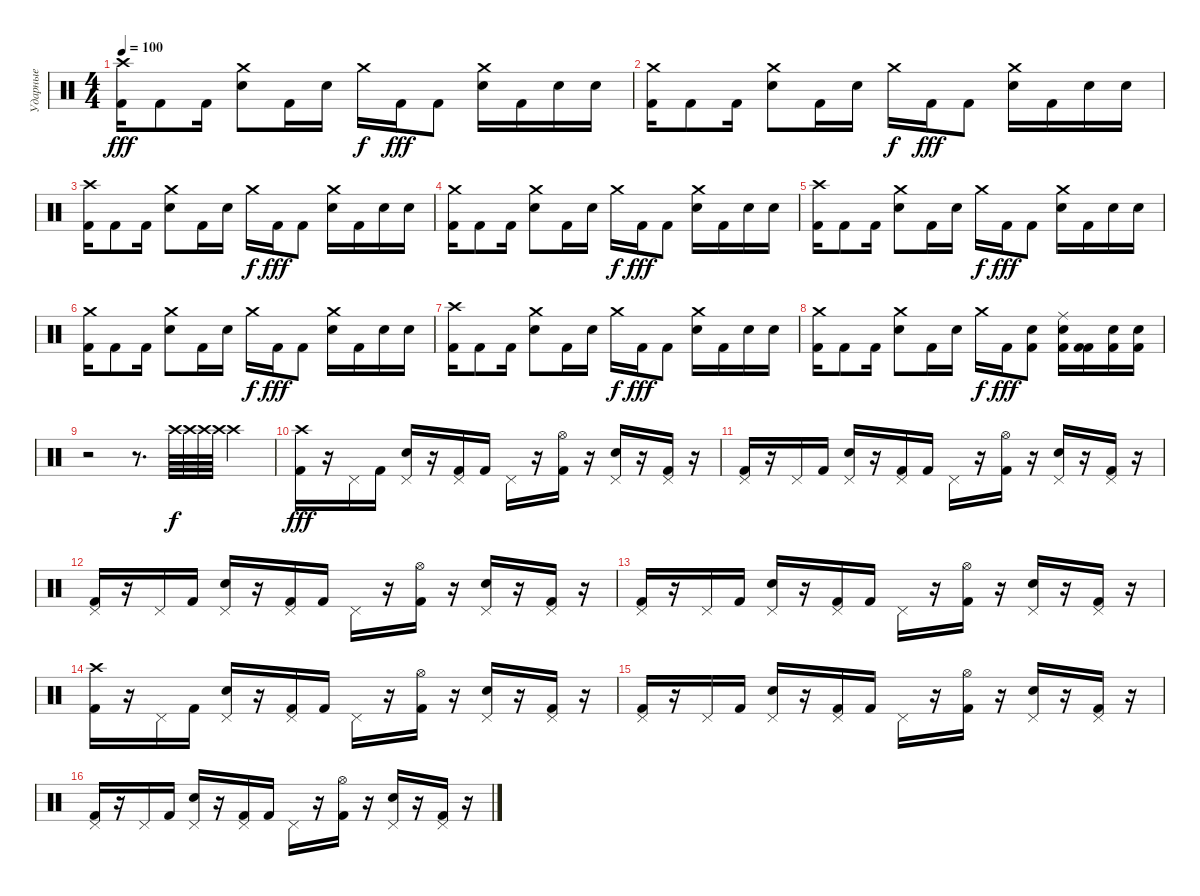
\track ("Ударные" "Ударные") {instrument percussion}
\staff {score}
\articulation defaults
\ts (4 4)
\tempo 100
\clef neutral
\ks c
("Kick (hit) 2" "Crash high (hit)").16{dy fff} "Kick (hit) 2".8 "Kick (hit) 2".16 ("Snare (hit) 2" "Crash medium (hit)").8 "Kick (hit) 2".16 "Snare (hit) 2".16 "Crash medium (hit)".16{dy f} "Kick (hit) 2".16{dy fff} "Kick (hit) 2".8 ("Snare (hit) 2" "Crash medium (hit)").16 "Kick (hit) 2".16 "Snare (hit) 2".16 "Snare (hit) 2".16 |
("Kick (hit) 2" "Crash medium (hit)").16 "Kick (hit) 2".8 "Kick (hit) 2".16 ("Snare (hit) 2" "Crash medium (hit)").8 "Kick (hit) 2".16 "Snare (hit) 2".16 "Crash medium (hit)".16{dy f} "Kick (hit) 2".16{dy fff} "Kick (hit) 2".8 ("Snare (hit) 2" "Crash medium (hit)").16 "Kick (hit) 2".16 "Snare (hit) 2".16 "Snare (hit) 2".16 |
("Kick (hit) 2" "Crash high (hit)").16 "Kick (hit) 2".8 "Kick (hit) 2".16 ("Snare (hit) 2" "Crash medium (hit)").8 "Kick (hit) 2".16 "Snare (hit) 2".16 "Crash medium (hit)".16{dy f} "Kick (hit) 2".16{dy fff} "Kick (hit) 2".8 ("Snare (hit) 2" "Crash medium (hit)").16 "Kick (hit) 2".16 "Snare (hit) 2".16 "Snare (hit) 2".16 |
("Kick (hit) 2" "Crash medium (hit)").16 "Kick (hit) 2".8 "Kick (hit) 2".16 ("Snare (hit) 2" "Crash medium (hit)").8 "Kick (hit) 2".16 "Snare (hit) 2".16 "Crash medium (hit)".16{dy f} "Kick (hit) 2".16{dy fff} "Kick (hit) 2".8 ("Snare (hit) 2" "Crash medium (hit)").16 "Kick (hit) 2".16 "Snare (hit) 2".16 "Snare (hit) 2".16 |
("Kick (hit) 2" "Crash high (hit)").16 "Kick (hit) 2".8 "Kick (hit) 2".16 ("Snare (hit) 2" "Crash medium (hit)").8 "Kick (hit) 2".16 "Snare (hit) 2".16 "Crash medium (hit)".16{dy f} "Kick (hit) 2".16{dy fff} "Kick (hit) 2".8 ("Snare (hit) 2" "Crash medium (hit)").16 "Kick (hit) 2".16 "Snare (hit) 2".16 "Snare (hit) 2".16 |
("Kick (hit) 2" "Crash medium (hit)").16 "Kick (hit) 2".8 "Kick (hit) 2".16 ("Snare (hit) 2" "Crash medium (hit)").8 "Kick (hit) 2".16 "Snare (hit) 2".16 "Crash medium (hit)".16{dy f} "Kick (hit) 2".16{dy fff} "Kick (hit) 2".8 ("Snare (hit) 2" "Crash medium (hit)").16 "Kick (hit) 2".16 "Snare (hit) 2".16 "Snare (hit) 2".16 |
("Kick (hit) 2" "Crash high (hit)").16 "Kick (hit) 2".8 "Kick (hit) 2".16 ("Snare (hit) 2" "Crash medium (hit)").8 "Kick (hit) 2".16 "Snare (hit) 2".16 "Crash medium (hit)".16{dy f} "Kick (hit) 2".16{dy fff} "Kick (hit) 2".8 ("Snare (hit) 2" "Crash medium (hit)").16 "Kick (hit) 2".16 "Snare (hit) 2".16 "Snare (hit) 2".16 |
("Kick (hit) 2" "Crash medium (hit)").16 "Kick (hit) 2".8 "Kick (hit) 2".16 ("Snare (hit) 2" "Crash medium (hit)").8 "Kick (hit) 2".16 "Snare (hit) 2".16 "Crash medium (hit)".16{dy f} "Kick (hit) 2".16{dy fff} ("Kick (hit) 2" "Snare (hit) 2").8 ("Snare (hit) 2" "Kick (hit) 2" "Ride (middle)").16 ("Kick (hit) 2" "Kick (hit) 2").16 ("Snare (hit) 2" "Kick (hit) 2").16 ("Snare (hit) 2" "Kick (hit) 2").16 |
r.2 r.8{d} "Crash high (hit)".64{dy f} "Crash high (hit)".64 "Crash high (hit)".64 "Crash high (hit)".64 "Crash high (hit)".4 |
("Crash high (hit)" "Kick (hit) 2").16{dy fff} r.16 "Pedal Hi-Hat (hit)".16 "Kick (hit) 2".16 ("Pedal Hi-Hat (hit)" "Snare (hit) 2").16 r.16 ("Pedal Hi-Hat (hit)" "Kick (hit) 2").16 "Kick (hit) 2".16 "Pedal Hi-Hat (hit)".16 r.16 ("Hi-Hat (open)" "Kick (hit) 2").16 r.16 ("Pedal Hi-Hat (hit)" "Snare (hit) 2").16 r.16 ("Pedal Hi-Hat (hit)" "Kick (hit) 2").16 r.16 |
("Pedal Hi-Hat (hit)" "Kick (hit) 2").16 r.16 "Pedal Hi-Hat (hit)".16 "Kick (hit) 2".16 ("Pedal Hi-Hat (hit)" "Snare (hit) 2").16 r.16 ("Pedal Hi-Hat (hit)" "Kick (hit) 2").16 "Kick (hit) 2".16 "Pedal Hi-Hat (hit)".16 r.16 ("Hi-Hat (open)" "Kick (hit) 2").16 r.16 ("Pedal Hi-Hat (hit)" "Snare (hit) 2").16 r.16 ("Pedal Hi-Hat (hit)" "Kick (hit) 2").16 r.16 |
("Pedal Hi-Hat (hit)" "Kick (hit) 2").16 r.16 "Pedal Hi-Hat (hit)".16 "Kick (hit) 2".16 ("Pedal Hi-Hat (hit)" "Snare (hit) 2").16 r.16 ("Pedal Hi-Hat (hit)" "Kick (hit) 2").16 "Kick (hit) 2".16 "Pedal Hi-Hat (hit)".16 r.16 ("Hi-Hat (open)" "Kick (hit) 2").16 r.16 ("Pedal Hi-Hat (hit)" "Snare (hit) 2").16 r.16 ("Pedal Hi-Hat (hit)" "Kick (hit) 2").16 r.16 |
("Pedal Hi-Hat (hit)" "Kick (hit) 2").16 r.16 "Pedal Hi-Hat (hit)".16 "Kick (hit) 2".16 ("Pedal Hi-Hat (hit)" "Snare (hit) 2").16 r.16 ("Pedal Hi-Hat (hit)" "Kick (hit) 2").16 "Kick (hit) 2".16 "Pedal Hi-Hat (hit)".16 r.16 ("Hi-Hat (open)" "Kick (hit) 2").16 r.16 ("Pedal Hi-Hat (hit)" "Snare (hit) 2").16 r.16 ("Pedal Hi-Hat (hit)" "Kick (hit) 2").16 r.16 |
("Crash high (hit)" "Kick (hit) 2").16 r.16 "Pedal Hi-Hat (hit)".16 "Kick (hit) 2".16 ("Pedal Hi-Hat (hit)" "Snare (hit) 2").16 r.16 ("Pedal Hi-Hat (hit)" "Kick (hit) 2").16 "Kick (hit) 2".16 "Pedal Hi-Hat (hit)".16 r.16 ("Hi-Hat (open)" "Kick (hit) 2").16 r.16 ("Pedal Hi-Hat (hit)" "Snare (hit) 2").16 r.16 ("Pedal Hi-Hat (hit)" "Kick (hit) 2").16 r.16 |
("Pedal Hi-Hat (hit)" "Kick (hit) 2").16 r.16 "Pedal Hi-Hat (hit)".16 "Kick (hit) 2".16 ("Pedal Hi-Hat (hit)" "Snare (hit) 2").16 r.16 ("Pedal Hi-Hat (hit)" "Kick (hit) 2").16 "Kick (hit) 2".16 "Pedal Hi-Hat (hit)".16 r.16 ("Hi-Hat (open)" "Kick (hit) 2").16 r.16 ("Pedal Hi-Hat (hit)" "Snare (hit) 2").16 r.16 ("Pedal Hi-Hat (hit)" "Kick (hit) 2").16 r.16 |
("Pedal Hi-Hat (hit)" "Kick (hit) 2").16 r.16 "Pedal Hi-Hat (hit)".16 "Kick (hit) 2".16 ("Pedal Hi-Hat (hit)" "Snare (hit) 2").16 r.16 ("Pedal Hi-Hat (hit)" "Kick (hit) 2").16 "Kick (hit) 2".16 "Pedal Hi-Hat (hit)".16 r.16 ("Hi-Hat (open)" "Kick (hit) 2").16 r.16 ("Pedal Hi-Hat (hit)" "Snare (hit) 2").16 r.16 ("Pedal Hi-Hat (hit)" "Kick (hit) 2").16 r.16
